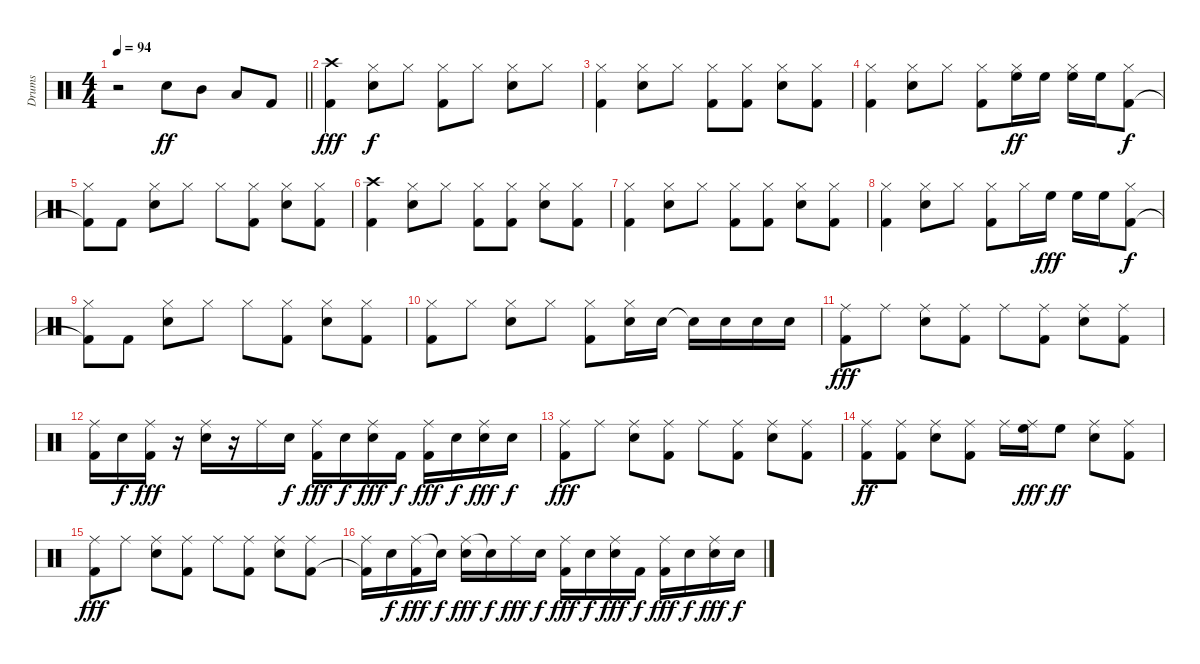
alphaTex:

\track ("Drums" "Drums") {instrument percussion}
\staff {score}
\articulation defaults
\ts (4 4)
\tempo 94
\clef neutral
\barLineRight lightlight
\ks c
r.2{dy ff} "Snare (hit) 2".8 "Mid Tom (hit)".8 "Low Tom (hit)".8 "Kick (hit) 2".8 |
("Crash high (hit)" "Kick (hit) 2").4{dy fff} ("Hi-Hat (closed)" "Snare (hit) 2").8{dy f} "Hi-Hat (closed)".8 ("Hi-Hat (closed)" "Kick (hit) 2").8 "Hi-Hat (closed)".8 ("Hi-Hat (closed)" "Snare (hit) 2").8 "Hi-Hat (closed)".8 |
("Hi-Hat (closed)" "Kick (hit) 2").4 ("Hi-Hat (closed)" "Snare (hit) 2").8 "Hi-Hat (closed)".8 ("Hi-Hat (closed)" "Kick (hit) 2").8 ("Hi-Hat (closed)" "Kick (hit) 2").8 ("Hi-Hat (closed)" "Snare (hit) 2").8 ("Hi-Hat (closed)" "Kick (hit) 2").8 |
("Hi-Hat (closed)" "Kick (hit) 2").4 ("Hi-Hat (closed)" "Snare (hit) 2").8 "Hi-Hat (closed)".8 ("Hi-Hat (closed)" "Kick (hit) 2").8 ("Hi-Hat (closed)" "High Floor Tom (hit)").16{dy ff} "High Floor Tom (hit)".16 ("Hi-Hat (closed)" "High Floor Tom (hit)").16 "High Floor Tom (hit)".16 ("Hi-Hat (closed)" "Kick (hit) 2").8{dy f} |
("Hi-Hat (closed)" "Kick (hit) 2"{t}).8 "Kick (hit) 2".8 ("Hi-Hat (closed)" "Snare (hit) 2").8 "Hi-Hat (closed)".8 "Hi-Hat (closed)".8 ("Hi-Hat (closed)" "Kick (hit) 2").8 ("Hi-Hat (closed)" "Snare (hit) 2").8 ("Hi-Hat (closed)" "Kick (hit) 2").8 |
("Crash high (hit)" "Kick (hit) 2").4 ("Hi-Hat (closed)" "Snare (hit) 2").8 "Hi-Hat (closed)".8 ("Hi-Hat (closed)" "Kick (hit) 2").8 ("Hi-Hat (closed)" "Kick (hit) 2").8 ("Hi-Hat (closed)" "Snare (hit) 2").8 ("Hi-Hat (closed)" "Kick (hit) 2").8 |
("Hi-Hat (closed)" "Kick (hit) 2").4 ("Hi-Hat (closed)" "Snare (hit) 2").8 "Hi-Hat (closed)".8 ("Hi-Hat (closed)" "Kick (hit) 2").8 ("Hi-Hat (closed)" "Kick (hit) 2").8 ("Hi-Hat (closed)" "Snare (hit) 2").8 ("Hi-Hat (closed)" "Kick (hit) 2").8 |
("Hi-Hat (closed)" "Kick (hit) 2").4 ("Hi-Hat (closed)" "Snare (hit) 2").8 "Hi-Hat (closed)".8 ("Hi-Hat (closed)" "Kick (hit) 2").8 "Hi-Hat (closed)".16 "High Floor Tom (hit)".16{dy fff} "High Floor Tom (hit)".16 "High Floor Tom (hit)".16 ("Hi-Hat (closed)" "Kick (hit) 2").8{dy f} |
("Hi-Hat (closed)" "Kick (hit) 2"{t}).8 "Kick (hit) 2".8 ("Hi-Hat (closed)" "Snare (hit) 2").8 "Hi-Hat (closed)".8 "Hi-Hat (closed)".8 ("Hi-Hat (closed)" "Kick (hit) 2").8 ("Hi-Hat (closed)" "Snare (hit) 2").8 ("Hi-Hat (closed)" "Kick (hit) 2").8 |
("Hi-Hat (closed)" "Kick (hit) 2").8 "Hi-Hat (closed)".8 ("Hi-Hat (closed)" "Snare (hit) 2").8 "Hi-Hat (closed)".8 ("Hi-Hat (closed)" "Kick (hit) 2").8 ("Hi-Hat (closed)" "Snare (hit) 2").16 "Snare (hit) 2".16 "Snare (hit) 2"{t}.16 "Snare (hit) 2".16 "Snare (hit) 2".16 "Snare (hit) 2".16 |
("Ride (middle)" "Kick (hit) 2").8{dy fff} "Ride (middle)".8 ("Ride (middle)" "Snare (hit) 2").8 ("Ride (middle)" "Kick (hit) 2").8 "Ride (middle)".8 ("Ride (middle)" "Kick (hit) 2").8 ("Ride (middle)" "Snare (hit) 2").8 ("Ride (middle)" "Kick (hit) 2").8 |
("Ride (middle)" "Kick (hit) 2").16 "Snare (hit) 2".16{dy f} ("Ride (middle)" "Kick (hit) 2").16{dy fff} r.16 ("Ride (middle)" "Snare (hit) 2").16 r.16 "Ride (middle)".16 "Snare (hit) 2".16{dy f} ("Ride (middle)" "Kick (hit) 2").16{dy fff} "Snare (hit) 2".16{dy f} ("Ride (middle)" "Snare (hit) 2").16{dy fff} "Kick (hit) 2".16{dy f} ("Ride (middle)" "Kick (hit) 2").16{dy fff} "Snare (hit) 2".16{dy f} ("Ride (middle)" "Snare (hit) 2").16{dy fff} "Snare (hit) 2".16{dy f} |
("Ride (middle)" "Kick (hit) 2").8{dy fff} "Ride (middle)".8 ("Ride (middle)" "Snare (hit) 2").8 ("Ride (middle)" "Kick (hit) 2").8 "Ride (middle)".8 ("Ride (middle)" "Kick (hit) 2").8 ("Ride (middle)" "Snare (hit) 2").8 ("Ride (middle)" "Kick (hit) 2").8 |
("Ride (middle)" "Kick (hit) 2").8{dy ff} ("Ride (middle)" "Kick (hit) 2").8 ("Ride (middle)" "Snare (hit) 2").8 ("Ride (middle)" "Kick (hit) 2").8 "Ride (middle)".16 ("Ride (middle)" "High Floor Tom (hit)").16{dy fff} "High Floor Tom (hit)".8{dy ff} ("Ride (middle)" "Snare (hit) 2").8 ("Ride (middle)" "Kick (hit) 2").8 |
("Ride (middle)" "Kick (hit) 2").8{dy fff} "Ride (middle)".8 ("Ride (middle)" "Snare (hit) 2").8 ("Ride (middle)" "Kick (hit) 2").8 "Ride (middle)".8 ("Ride (middle)" "Kick (hit) 2").8 ("Ride (middle)" "Snare (hit) 2").8 ("Ride (middle)" "Kick (hit) 2").8 |
("Ride (middle)" "Kick (hit) 2"{t}).16 "Snare (hit) 2".16{dy f} ("Ride (middle)" "Kick (hit) 2").16{dy fff} "Snare (hit)"{t}.16{dy f} ("Ride (middle)" "Snare (hit) 2").16{dy fff} "Snare (hit)"{t}.16{dy f} "Ride (middle)".16{dy fff} "Snare (hit) 2".16{dy f} ("Ride (middle)" "Kick (hit) 2").16{dy fff} "Snare (hit) 2".16{dy f} ("Ride (middle)" "Snare (hit) 2").16{dy fff} "Kick (hit) 2".16{dy f} ("Ride (middle)" "Kick (hit) 2").16{dy fff} "Snare (hit) 2".16{dy f} ("Ride (middle)" "Snare (hit) 2").16{dy fff} "Snare (hit) 2".16{dy f}
